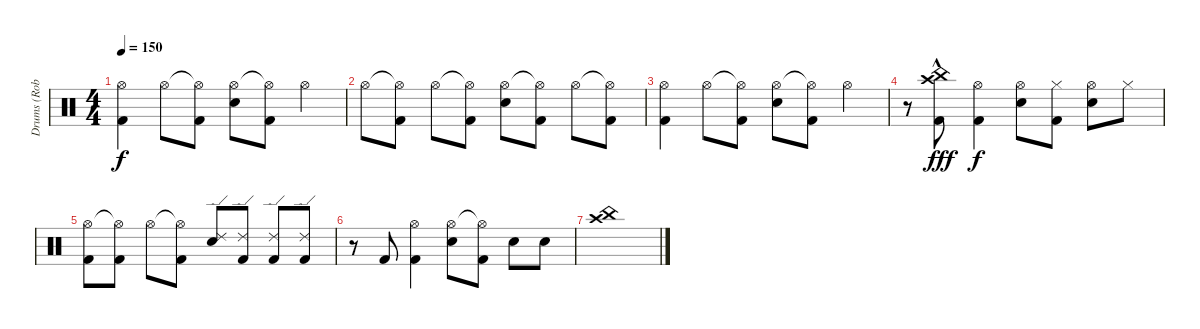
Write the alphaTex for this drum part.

\track ("Drums (Rob)" "Drums (Rob") {instrument percussion}
\staff {score}
\articulation defaults
\ts (4 4)
\tempo 150
\clef neutral
\ks c
("Hi-Hat (open)" "Kick (hit) 2").4{dy f} "Hi-Hat (open)".8 ("Hi-Hat (open)"{t} "Kick (hit) 2").8 ("Hi-Hat (open)" "Snare (hit) 2").8 ("Hi-Hat (open)"{t} "Kick (hit) 2").8 "Hi-Hat (open)".4 |
"Hi-Hat (open)".8 ("Hi-Hat (open)"{t} "Kick (hit) 2").8 "Hi-Hat (open)".8 ("Hi-Hat (open)"{t} "Kick (hit) 2").8 ("Hi-Hat (open)" "Snare (hit) 2").8 ("Hi-Hat (open)"{t} "Kick (hit) 2").8 "Hi-Hat (open)".8 ("Hi-Hat (open)"{t} "Kick (hit) 2").8 |
("Hi-Hat (open)" "Kick (hit) 2").4 "Hi-Hat (open)".8 ("Hi-Hat (open)"{t} "Kick (hit) 2").8 ("Hi-Hat (open)" "Snare (hit) 2").8 ("Hi-Hat (open)"{t} "Kick (hit) 2").8 "Hi-Hat (open)".4 |
r.8 ("Crash high (hit)"{hac} "China (hit)"{hac} "Kick (hit) 2").8{dy fff} ("Hi-Hat (open)" "Kick (hit) 2").4{dy f} ("Hi-Hat (open)" "Snare (hit) 2").8 ("Hi-Hat (closed)" "Kick (hit) 2").8 ("Hi-Hat (open)" "Snare (hit) 2").8 "Hi-Hat (closed)".8 |
("Hi-Hat (open)" "Kick (hit) 2").8 ("Hi-Hat (open)"{t} "Kick (hit) 2").8 "Hi-Hat (open)".8 ("Hi-Hat (open)"{t} "Kick (hit) 2").8 ("Ride (edge) 2" "Snare (hit) 2").8 ("Ride (edge) 2" "Kick (hit) 2").8 ("Ride (edge) 2" "Kick (hit) 2").8 ("Ride (edge) 2" "Kick (hit) 2").8 |
r.8 "Kick (hit) 2".8 ("Hi-Hat (open)" "Kick (hit) 2").4 ("Hi-Hat (open)" "Snare (hit) 2").8 ("Hi-Hat (open)"{t} "Kick (hit) 2").8 "Snare (hit) 2".8 "Snare (hit) 2".8 |
("China (hit)" "Crash high (hit)").1
